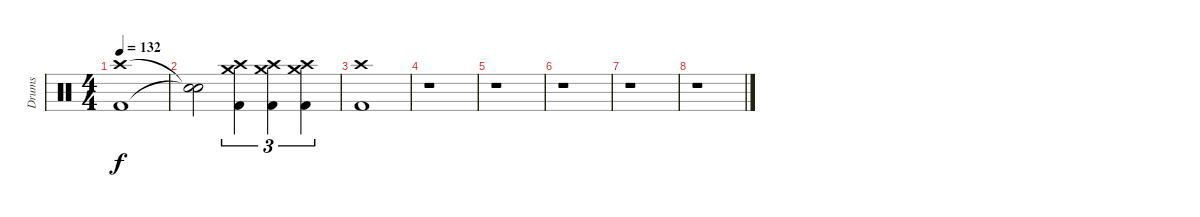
\track ("Drums" "Drums") {instrument percussion}
\staff {score}
\articulation defaults
\ts (4 4)
\tempo 132
\clef neutral
\ks c
("Crash high (hit)" "Kick (hit) 2").1{dy f} |
("Snare (hit)"{t} "Snare (hit)"{t}).2 ("Crash high (hit)" "Crash medium (hit)" "Kick (hit) 2").4{tu (3 2)} ("Crash high (hit)" "Crash medium (hit)" "Kick (hit) 2").4{tu (3 2)} ("Crash high (hit)" "Crash medium (hit)" "Kick (hit) 2").4{tu (3 2)} |
("Crash high (hit)" "Kick (hit) 2").1 |
r.1 |
r.1 |
r.1 |
r.1 |
r.1
